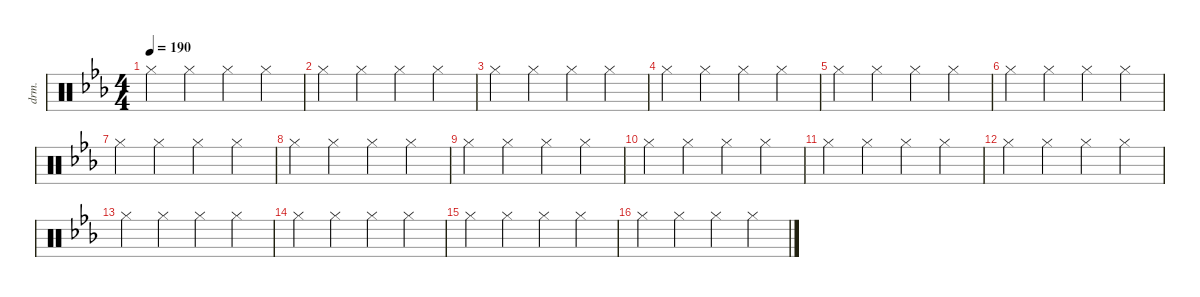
\defaultSystemsLayout 4
\hideDynamics
\bracketExtendMode nobrackets
\track ("节拍器" "drm.") {instrument percussion}
\staff {score}
\articulation defaults
\ts (4 4)
\tempo 190
\clef neutral
\ks cminor "Hi-Hat (closed)"{acc forcenatural}.4{dy mf beam Down} "Hi-Hat (closed)"{acc forcenatural}.4{beam Down} "Hi-Hat (closed)"{acc forcenatural}.4{beam Down} "Hi-Hat (closed)"{acc forcenatural}.4{beam Down}
|
"Hi-Hat (closed)"{acc forcenatural}.4{beam Down} "Hi-Hat (closed)"{acc forcenatural}.4{beam Down} "Hi-Hat (closed)"{acc forcenatural}.4{beam Down} "Hi-Hat (closed)"{acc forcenatural}.4{beam Down} |
"Hi-Hat (closed)"{acc forcenatural}.4{beam Down} "Hi-Hat (closed)"{acc forcenatural}.4{beam Down} "Hi-Hat (closed)"{acc forcenatural}.4{beam Down} "Hi-Hat (closed)"{acc forcenatural}.4{beam Down} |
"Hi-Hat (closed)"{acc forcenatural}.4{beam Down} "Hi-Hat (closed)"{acc forcenatural}.4{beam Down} "Hi-Hat (closed)"{acc forcenatural}.4{beam Down} "Hi-Hat (closed)"{acc forcenatural}.4{beam Down} |
"Hi-Hat (closed)"{acc forcenatural}.4{beam Down} "Hi-Hat (closed)"{acc forcenatural}.4{beam Down} "Hi-Hat (closed)"{acc forcenatural}.4{beam Down} "Hi-Hat (closed)"{acc forcenatural}.4{beam Down} |
"Hi-Hat (closed)"{acc forcenatural}.4{beam Down} "Hi-Hat (closed)"{acc forcenatural}.4{beam Down} "Hi-Hat (closed)"{acc forcenatural}.4{beam Down} "Hi-Hat (closed)"{acc forcenatural}.4{beam Down} |
"Hi-Hat (closed)"{acc forcenatural}.4{beam Down} "Hi-Hat (closed)"{acc forcenatural}.4{beam Down} "Hi-Hat (closed)"{acc forcenatural}.4{beam Down} "Hi-Hat (closed)"{acc forcenatural}.4{beam Down} |
"Hi-Hat (closed)"{acc forcenatural}.4{beam Down} "Hi-Hat (closed)"{acc forcenatural}.4{beam Down} "Hi-Hat (closed)"{acc forcenatural}.4{beam Down} "Hi-Hat (closed)"{acc forcenatural}.4{beam Down} |
"Hi-Hat (closed)"{acc forcenatural}.4{beam Down} "Hi-Hat (closed)"{acc forcenatural}.4{beam Down} "Hi-Hat (closed)"{acc forcenatural}.4{beam Down} "Hi-Hat (closed)"{acc forcenatural}.4{beam Down} |
"Hi-Hat (closed)"{acc forcenatural}.4{beam Down} "Hi-Hat (closed)"{acc forcenatural}.4{beam Down} "Hi-Hat (closed)"{acc forcenatural}.4{beam Down} "Hi-Hat (closed)"{acc forcenatural}.4{beam Down} |
"Hi-Hat (closed)"{acc forcenatural}.4{beam Down} "Hi-Hat (closed)"{acc forcenatural}.4{beam Down} "Hi-Hat (closed)"{acc forcenatural}.4{beam Down} "Hi-Hat (closed)"{acc forcenatural}.4{beam Down} |
"Hi-Hat (closed)"{acc forcenatural}.4{beam Down} "Hi-Hat (closed)"{acc forcenatural}.4{beam Down} "Hi-Hat (closed)"{acc forcenatural}.4{beam Down} "Hi-Hat (closed)"{acc forcenatural}.4{beam Down} |
"Hi-Hat (closed)"{acc forcenatural}.4{beam Down} "Hi-Hat (closed)"{acc forcenatural}.4{beam Down} "Hi-Hat (closed)"{acc forcenatural}.4{beam Down} "Hi-Hat (closed)"{acc forcenatural}.4{beam Down} |
"Hi-Hat (closed)"{acc forcenatural}.4{beam Down} "Hi-Hat (closed)"{acc forcenatural}.4{beam Down} "Hi-Hat (closed)"{acc forcenatural}.4{beam Down} "Hi-Hat (closed)"{acc forcenatural}.4{beam Down} |
"Hi-Hat (closed)"{acc forcenatural}.4{beam Down} "Hi-Hat (closed)"{acc forcenatural}.4{beam Down} "Hi-Hat (closed)"{acc forcenatural}.4{beam Down} "Hi-Hat (closed)"{acc forcenatural}.4{beam Down} |
"Hi-Hat (closed)"{acc forcenatural}.4{beam Down} "Hi-Hat (closed)"{acc forcenatural}.4{beam Down} "Hi-Hat (closed)"{acc forcenatural}.4{beam Down} "Hi-Hat (closed)"{acc forcenatural}.4{beam Down}
